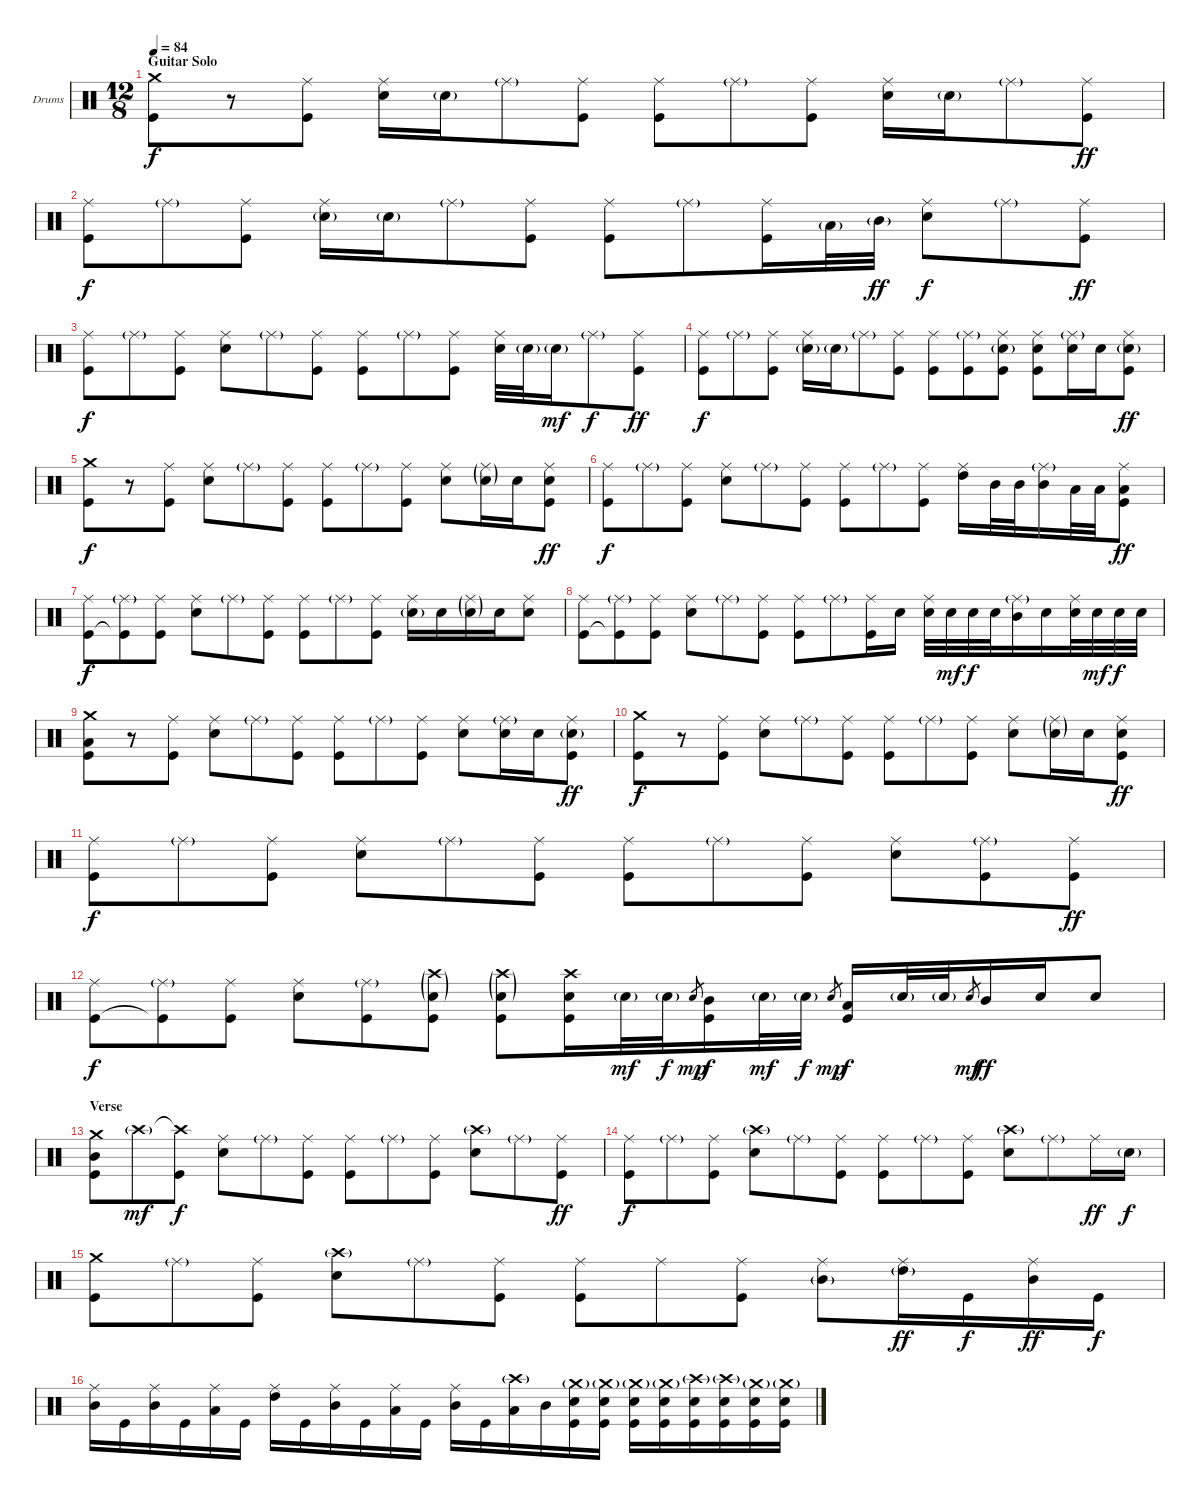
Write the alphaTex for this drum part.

\bracketExtendMode groupsimilarinstruments
\firstSystemTrackNameOrientation horizontal
\otherSystemsTrackNameOrientation horizontal
\track ("Drumkit" "Drums") {instrument percussion}
\staff {score}
\articulation defaults
\ts (12 8)
\section ("" "Guitar Solo")
\tempo 84
\clef neutral
\ks c
("Crash medium (hit)" "Kick (hit)").8{dy f} r.8 ("Ride (middle)" "Kick (hit)").8 ("Ride (middle)" "Snare (hit) 2").16 "Snare (hit) 2"{g}.16 "Ride (middle)"{g}.8 ("Ride (middle)" "Kick (hit)").8 ("Ride (middle)" "Kick (hit)").8 "Ride (middle)"{g}.8 ("Ride (middle)" "Kick (hit)").8 ("Ride (middle)" "Snare (hit) 2").16 "Snare (hit) 2"{g}.16 "Ride (middle)"{g}.8 ("Ride (middle)" "Kick (hit)").8{dy ff} |
("Ride (middle)" "Kick (hit)").8{dy f} "Ride (middle)"{g}.8 ("Ride (middle)" "Kick (hit)").8 ("Ride (middle)" "Snare (hit) 2"{g}).16 "Snare (hit) 2"{g}.16 "Ride (middle)"{g}.8 ("Ride (middle)" "Kick (hit)").8 ("Ride (middle)" "Kick (hit)").8 "Ride (middle)"{g}.8 ("Ride (middle)" "Kick (hit)").16 "Low Tom (hit)"{g}.32 "Mid Tom (hit)"{g}.32{dy ff} ("Ride (middle)" "Snare (hit) 2").8{dy f} "Ride (middle)"{g}.8 ("Ride (middle)" "Kick (hit)").8{dy ff} |
("Ride (middle)" "Kick (hit)").8{dy f} "Ride (middle)"{g}.8 ("Ride (middle)" "Kick (hit)").8 ("Ride (middle)" "Snare (hit) 2").8 "Ride (middle)"{g}.8 ("Ride (middle)" "Kick (hit)").8 ("Ride (middle)" "Kick (hit)").8 "Ride (middle)"{g}.8 ("Ride (middle)" "Kick (hit)").8 ("Ride (middle)" "Snare (hit) 2").32 "Snare (hit) 2"{g}.32 "Snare (hit) 2"{g}.16{dy mf} "Ride (middle)"{g}.8{dy f} ("Ride (middle)" "Kick (hit)").8{dy ff} |
("Ride (middle)" "Kick (hit)").8{dy f} "Ride (middle)"{g}.8 ("Ride (middle)" "Kick (hit)").8 ("Ride (middle)" "Snare (hit) 2"{g}).16 "Snare (hit) 2"{g}.16 "Ride (middle)"{g}.8 ("Ride (middle)" "Kick (hit)").8 ("Ride (middle)" "Kick (hit)").8 ("Ride (middle)"{g} "Kick (hit)").8 ("Ride (middle)" "Snare (hit) 2"{g} "Kick (hit)").8 ("Ride (middle)" "Snare (hit) 2" "Kick (hit)").8 ("Ride (middle)"{g} "Snare (hit) 2").16 "Snare (hit) 2".16 ("Ride (middle)" "Snare (hit) 2"{g} "Kick (hit)").8{dy ff} |
("Crash medium (hit)" "Kick (hit)").8{dy f} r.8 ("Ride (middle)" "Kick (hit)").8 ("Ride (middle)" "Snare (hit) 2").8 "Ride (middle)"{g}.8 ("Ride (middle)" "Kick (hit)").8 ("Ride (middle)" "Kick (hit)").8 "Ride (middle)"{g}.8 ("Ride (middle)" "Kick (hit)").8 ("Ride (middle)" "Snare (hit) 2").8 ("Ride (middle)"{g} "Snare (hit) 2"{g}).16 "Snare (hit) 2".16 ("Ride (middle)" "Snare (hit) 2" "Kick (hit)").8{dy ff} |
("Ride (middle)" "Kick (hit)").8{dy f} "Ride (middle)"{g}.8 ("Ride (middle)" "Kick (hit)").8 ("Ride (middle)" "Snare (hit) 2").8 "Ride (middle)"{g}.8 ("Ride (middle)" "Kick (hit)").8 ("Ride (middle)" "Kick (hit)").8 "Ride (middle)"{g}.8 ("Ride (middle)" "Kick (hit)").8 ("Ride (middle)" "High Tom (hit)").16 "Mid Tom (hit)".32 "Mid Tom (hit)".32 ("Ride (middle)"{g} "Mid Tom (hit)").16 "Low Tom (hit)".32 "Low Tom (hit)".32 ("Ride (middle)" "Low Tom (hit)" "Kick (hit)").8{dy ff} |
("Ride (middle)" "Kick (hit)").8{dy f} ("Ride (middle)"{g} "Kick (hit)"{t}).8 ("Ride (middle)" "Kick (hit)").8 ("Ride (middle)" "Snare (hit) 2").8 "Ride (middle)"{g}.8 ("Ride (middle)" "Kick (hit)").8 ("Ride (middle)" "Kick (hit)").8 "Ride (middle)"{g}.8 ("Ride (middle)" "Kick (hit)").8 ("Ride (middle)" "Snare (hit) 2"{g}).16 "Snare (hit) 2".16 ("Ride (middle)"{g} "Snare (hit) 2"{g}).16 "Snare (hit) 2".16 ("Ride (middle)" "Snare (hit) 2").8 |
("Ride (middle)" "Kick (hit)").8 ("Ride (middle)"{g} "Kick (hit)"{t}).8 ("Ride (middle)" "Kick (hit)").8 ("Ride (middle)" "Snare (hit) 2").8 "Ride (middle)"{g}.8 ("Ride (middle)" "Kick (hit)").8 ("Ride (middle)" "Kick (hit)").8 "Ride (middle)"{g}.8 ("Ride (middle)" "Kick (hit)").16 "Snare (hit) 2".16 ("Ride (middle)" "Snare (hit) 2").32 "Snare (hit) 2".32{dy mf} "Snare (hit) 2".32{dy f} "Snare (hit) 2".32 ("Ride (middle)"{g} "Mid Tom (hit)").16 "Snare (hit) 2".16 ("Ride (middle)" "Snare (hit) 2").32 "Snare (hit) 2".32{dy mf} "Snare (hit) 2".32{dy f} "Snare (hit) 2".32 |
("Crash medium (hit)" "Low Tom (hit)" "Kick (hit)").8 r.8 ("Ride (middle)" "Kick (hit)").8 ("Ride (middle)" "Snare (hit) 2").8 "Ride (middle)"{g}.8 ("Ride (middle)" "Kick (hit)").8 ("Ride (middle)" "Kick (hit)").8 "Ride (middle)"{g}.8 ("Ride (middle)" "Kick (hit)").8 ("Ride (middle)" "Snare (hit) 2").8 ("Ride (middle)"{g} "Snare (hit) 2").16 "Snare (hit) 2".16 ("Ride (middle)" "Snare (hit) 2"{g} "Kick (hit)").8{dy ff} |
("Crash medium (hit)" "Kick (hit)").8{dy f} r.8 ("Ride (middle)" "Kick (hit)").8 ("Ride (middle)" "Snare (hit) 2").8 "Ride (middle)"{g}.8 ("Ride (middle)" "Kick (hit)").8 ("Ride (middle)" "Kick (hit)").8 "Ride (middle)"{g}.8 ("Ride (middle)" "Kick (hit)").8 ("Ride (middle)" "Snare (hit) 2").8 ("Ride (middle)"{g} "Snare (hit) 2"{g}).16 "Snare (hit) 2".16 ("Ride (middle)" "Snare (hit) 2" "Kick (hit)").8{dy ff} |
("Ride (middle)" "Kick (hit)").8{dy f} "Ride (middle)"{g}.8 ("Ride (middle)" "Kick (hit)").8 ("Ride (middle)" "Snare (hit) 2").8 "Ride (middle)"{g}.8 ("Ride (middle)" "Kick (hit)").8 ("Ride (middle)" "Kick (hit)").8 "Ride (middle)"{g}.8 ("Ride (middle)" "Kick (hit)").8 ("Ride (middle)" "Snare (hit) 2").8 ("Ride (middle)"{g} "Kick (hit)").8 ("Ride (middle)" "Kick (hit)").8{dy ff} |
("Ride (middle)" "Kick (hit)").8{dy f} ("Ride (middle)"{g} "Kick (hit)"{t}).8 ("Ride (middle)" "Kick (hit)").8 ("Ride (middle)" "Snare (hit) 2").8 ("Ride (middle)"{g} "Kick (hit)").8 ("Crash high (hit)"{g} "Snare (hit) 2"{g} "Kick (hit)").8 ("Crash high (hit)"{g} "Snare (hit) 2"{g} "Kick (hit)").8 ("Crash high (hit)" "Snare (hit) 2" "Kick (hit)").16 "Snare (hit) 2"{g}.32{dy mf} "Snare (hit) 2"{g}.32{dy f} "Snare (hit) 2".8{gr dy mp} ("Mid Tom (hit)" "Kick (hit)").16{dy f} "Snare (hit) 2"{g}.32{dy mf} "Snare (hit) 2"{g}.32{dy f} "Snare (hit) 2".8{gr dy mp} ("Low Tom (hit)" "Kick (hit)").16{dy f} "Snare (hit) 2"{g}.32 "Snare (hit) 2"{g}.32 "Snare (hit) 2".8{gr dy mf} "Mid Tom (hit)".16{dy ff} "Snare (hit) 2".16 "Snare (hit) 2".8 |
\section ("" "Verse")
("Crash medium (hit)" "Mid Tom (hit)" "Kick (hit)").8 "Crash high (hit)"{g}.8{dy mf} ("Crash high (hit)"{t} "Kick (hit)").8{dy f} ("Ride (middle)" "Snare (hit) 2").8 "Ride (middle)"{g}.8 ("Ride (middle)" "Kick (hit)").8 ("Ride (middle)" "Kick (hit)").8 "Ride (middle)"{g}.8 ("Ride (middle)" "Kick (hit)").8 ("Crash high (hit)"{g} "Snare (hit) 2").8 "Ride (middle)"{g}.8 ("Ride (middle)" "Kick (hit)").8{dy ff} |
("Ride (middle)" "Kick (hit)").8{dy f} "Ride (middle)"{g}.8 ("Ride (middle)" "Kick (hit)").8 ("Crash high (hit)"{g} "Snare (hit) 2").8 "Ride (middle)"{g}.8 ("Ride (middle)" "Kick (hit)").8 ("Ride (middle)" "Kick (hit)").8 "Ride (middle)"{g}.8 ("Ride (middle)" "Kick (hit)").8 ("Crash high (hit)"{g} "Snare (hit) 2").8 "Ride (middle)"{g}.8 "Ride (middle)".16{dy ff} "Snare (hit) 2"{g}.16{dy f} |
("Crash medium (hit)" "Kick (hit)").8 "Ride (middle)"{g}.8 ("Ride (middle)" "Kick (hit)").8 ("Crash high (hit)"{g} "Snare (hit) 2").8 "Ride (middle)"{g}.8 ("Ride (middle)" "Kick (hit)").8 ("Ride (middle)" "Kick (hit)").8 "Ride (middle)".8 ("Ride (middle)" "Kick (hit)").8 ("Ride (middle)" "Mid Tom (hit)"{g}).8 ("Ride (middle)" "High Tom (hit)"{g}).16{dy ff} "Kick (hit)".16{dy f} ("Ride (middle)" "Mid Tom (hit)").16{dy ff} "Kick (hit)".16{dy f} |
("Ride (middle)" "Mid Tom (hit)").16 "Kick (hit)".16 ("Ride (middle)" "Mid Tom (hit)").16 "Kick (hit)".16 ("Ride (middle)" "Low Tom (hit)").16 "Kick (hit)".16 ("Ride (middle)" "High Tom (hit)").16 "Kick (hit)".16 ("Ride (middle)" "Mid Tom (hit)").16 "Kick (hit)".16 ("Ride (middle)" "Low Tom (hit)").16 "Kick (hit)".16 ("Ride (middle)" "Mid Tom (hit)").16 "Kick (hit)".16 ("Crash high (hit)"{g} "Low Tom (hit)").16 "Mid Tom (hit)".16 ("Crash medium (hit)"{g} "Snare (hit) 2" "Kick (hit)").16 ("Crash medium (hit)"{g} "Snare (hit) 2" "Kick (hit)").16 ("Crash medium (hit)"{g} "Snare (hit) 2" "Kick (hit)").16 ("Crash medium (hit)"{g} "Snare (hit) 2" "Kick (hit)").16 ("Crash high (hit)"{g} "Snare (hit) 2" "Kick (hit)").16 ("Crash high (hit)"{g} "Snare (hit) 2" "Kick (hit)").16 ("Crash medium (hit)"{g} "Snare (hit) 2" "Kick (hit)").16 ("Crash medium (hit)"{g} "Snare (hit) 2" "Kick (hit)").16
